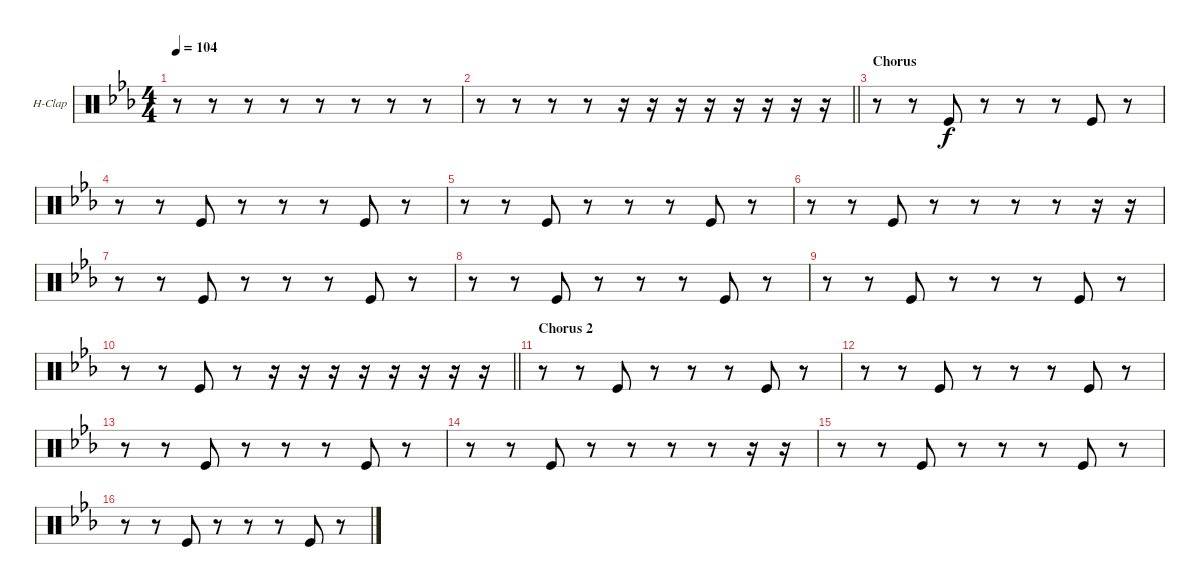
\bracketExtendMode groupsimilarinstruments
\firstSystemTrackNameOrientation horizontal
\otherSystemsTrackNameOrientation horizontal
\track ("Hand Clap" "H-Clap") {instrument percussion}
\staff {score}
\articulation defaults
\ts (4 4)
\tempo 104
\clef neutral
\ks eb
r.8{dy f} r.8 r.8 r.8 r.8 r.8 r.8 r.8 |
\barLineRight lightlight
r.8 r.8 r.8 r.8 r.16 r.16 r.16 r.16 r.16 r.16 r.16 r.16 |
\section ("" "Chorus")
r.8 r.8 "Kick (hit)".8 r.8 r.8 r.8 "Kick (hit)".8 r.8 |
r.8 r.8 "Kick (hit)".8 r.8 r.8 r.8 "Kick (hit)".8 r.8 |
r.8 r.8 "Kick (hit)".8 r.8 r.8 r.8 "Kick (hit)".8 r.8 |
r.8 r.8 "Kick (hit)".8 r.8 r.8 r.8 r.8 r.16 r.16 |
r.8 r.8 "Kick (hit)".8 r.8 r.8 r.8 "Kick (hit)".8 r.8 |
r.8 r.8 "Kick (hit)".8 r.8 r.8 r.8 "Kick (hit)".8 r.8 |
r.8 r.8 "Kick (hit)".8 r.8 r.8 r.8 "Kick (hit)".8 r.8 |
\barLineRight lightlight
r.8 r.8 "Kick (hit)".8 r.8 r.16 r.16 r.16 r.16 r.16 r.16 r.16 r.16 |
\section ("" "Chorus 2")
r.8 r.8 "Kick (hit)".8 r.8 r.8 r.8 "Kick (hit)".8 r.8 |
r.8 r.8 "Kick (hit)".8 r.8 r.8 r.8 "Kick (hit)".8 r.8 |
r.8 r.8 "Kick (hit)".8 r.8 r.8 r.8 "Kick (hit)".8 r.8 |
r.8 r.8 "Kick (hit)".8 r.8 r.8 r.8 r.8 r.16 r.16 |
r.8 r.8 "Kick (hit)".8 r.8 r.8 r.8 "Kick (hit)".8 r.8 |
r.8 r.8 "Kick (hit)".8 r.8 r.8 r.8 "Kick (hit)".8 r.8
